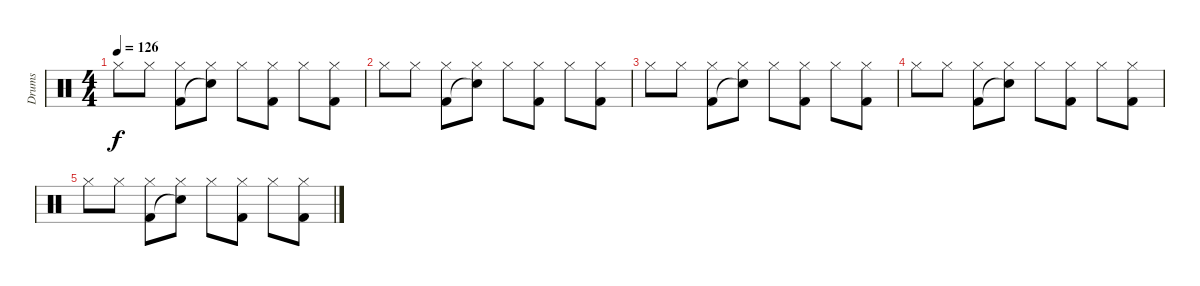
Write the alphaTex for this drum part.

\track ("Drums" "Drums") {instrument percussion}
\staff {score}
\articulation defaults
\ts (4 4)
\tempo 126
\clef neutral
\ks c "Hi-Hat (closed)".8{dy f} "Hi-Hat (closed)".8
("Hi-Hat (closed)" "Kick (hit) 2").8 ("Hi-Hat (closed)" "Snare (hit)"{t}).8 "Hi-Hat (closed)".8 ("Hi-Hat (closed)" "Kick (hit) 2").8 "Hi-Hat (closed)".8 ("Hi-Hat (closed)" "Kick (hit) 2").8 |
"Hi-Hat (closed)".8 "Hi-Hat (closed)".8 ("Hi-Hat (closed)" "Kick (hit) 2").8 ("Hi-Hat (closed)" "Snare (hit)"{t}).8 "Hi-Hat (closed)".8 ("Hi-Hat (closed)" "Kick (hit) 2").8 "Hi-Hat (closed)".8 ("Hi-Hat (closed)" "Kick (hit) 2").8 |
"Hi-Hat (closed)".8 "Hi-Hat (closed)".8 ("Hi-Hat (closed)" "Kick (hit) 2").8 ("Hi-Hat (closed)" "Snare (hit)"{t}).8 "Hi-Hat (closed)".8 ("Hi-Hat (closed)" "Kick (hit) 2").8 "Hi-Hat (closed)".8 ("Hi-Hat (closed)" "Kick (hit) 2").8 |
"Hi-Hat (closed)".8 "Hi-Hat (closed)".8 ("Hi-Hat (closed)" "Kick (hit) 2").8 ("Hi-Hat (closed)" "Snare (hit)"{t}).8 "Hi-Hat (closed)".8 ("Hi-Hat (closed)" "Kick (hit) 2").8 "Hi-Hat (closed)".8 ("Hi-Hat (closed)" "Kick (hit) 2").8 |
"Hi-Hat (closed)".8 "Hi-Hat (closed)".8 ("Hi-Hat (closed)" "Kick (hit) 2").8 ("Hi-Hat (closed)" "Snare (hit)"{t}).8 "Hi-Hat (closed)".8 ("Hi-Hat (closed)" "Kick (hit) 2").8 "Hi-Hat (closed)".8 ("Hi-Hat (closed)" "Kick (hit) 2").8
